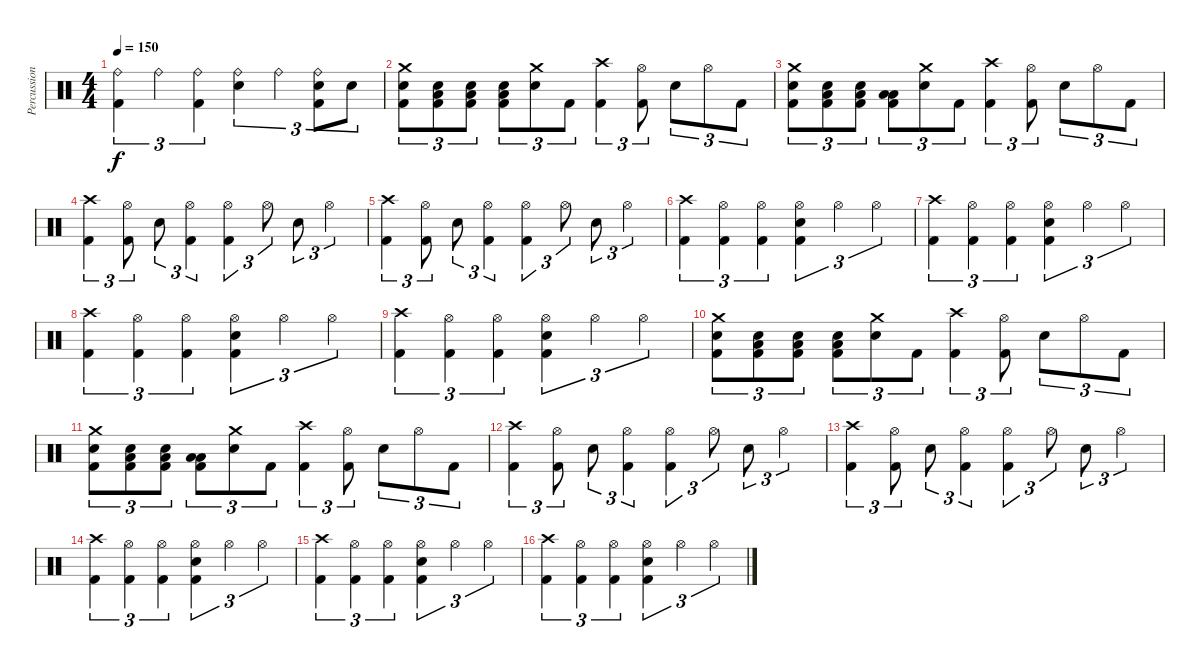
\track ("Percussion" "Percussion") {instrument percussion}
\staff {score}
\articulation defaults
\ts (4 4)
\tempo 150
\clef neutral
\ks c
("Ride (bell)" "Kick (hit) 2").4{tu (3 2) dy f} "Ride (bell)".4{tu (3 2)} ("Ride (bell)" "Kick (hit) 2").4{tu (3 2)} ("Ride (bell)" "Snare (hit) 2").4{tu (3 2)} "Ride (bell)".4{tu (3 2)} ("Ride (bell)" "Snare (hit) 2" "Kick (hit) 2").8{tu (3 2)} "Snare (hit) 2".8{tu (3 2)} |
("Crash medium (hit)" "Snare (hit) 2" "Kick (hit) 2").8{tu (3 2)} ("Snare (hit) 2" "Low Floor Tom (hit)" "Kick (hit) 2").8{tu (3 2)} ("Snare (hit) 2" "Low Floor Tom (hit)" "Kick (hit) 2").8{tu (3 2)} ("Snare (hit) 2" "Low Floor Tom (hit)" "Kick (hit) 2").8{tu (3 2)} ("Crash medium (hit)" "Snare (hit) 2").8{tu (3 2)} "Kick (hit) 2".8{tu (3 2)} ("Crash high (hit)" "Kick (hit) 2").4{tu (3 2)} ("Hi-Hat (open)" "Kick (hit) 2").8{tu (3 2)} "Snare (hit) 2".8{tu (3 2)} "Hi-Hat (open)".8{tu (3 2)} "Kick (hit) 2".8{tu (3 2)} |
("Crash medium (hit)" "Snare (hit) 2" "Kick (hit) 2").8{tu (3 2)} ("Snare (hit) 2" "Low Floor Tom (hit)" "Kick (hit) 2").8{tu (3 2)} ("Snare (hit) 2" "Low Floor Tom (hit)" "Kick (hit) 2").8{tu (3 2)} ("Low Floor Tom (hit)" "Low Floor Tom (hit)" "Kick (hit) 2").8{tu (3 2)} ("Crash medium (hit)" "Snare (hit) 2").8{tu (3 2)} "Kick (hit) 2".8{tu (3 2)} ("Crash high (hit)" "Kick (hit) 2").4{tu (3 2)} ("Hi-Hat (open)" "Kick (hit) 2").8{tu (3 2)} "Snare (hit) 2".8{tu (3 2)} "Hi-Hat (open)".8{tu (3 2)} "Kick (hit) 2".8{tu (3 2)} |
("Crash high (hit)" "Kick (hit) 2").4{tu (3 2)} ("Hi-Hat (open)" "Kick (hit) 2").8{tu (3 2)} "Snare (hit) 2".8{tu (3 2)} ("Hi-Hat (open)" "Kick (hit) 2").4{tu (3 2)} ("Hi-Hat (open)" "Kick (hit) 2").4{tu (3 2)} "Hi-Hat (open)".8{tu (3 2)} "Snare (hit) 2".8{tu (3 2)} "Hi-Hat (open)".4{tu (3 2)} |
("Crash high (hit)" "Kick (hit) 2").4{tu (3 2)} ("Hi-Hat (open)" "Kick (hit) 2").8{tu (3 2)} "Snare (hit) 2".8{tu (3 2)} ("Hi-Hat (open)" "Kick (hit) 2").4{tu (3 2)} ("Hi-Hat (open)" "Kick (hit) 2").4{tu (3 2)} "Hi-Hat (open)".8{tu (3 2)} "Snare (hit) 2".8{tu (3 2)} "Hi-Hat (open)".4{tu (3 2)} |
("Crash high (hit)" "Kick (hit) 2").4{tu (3 2)} ("Hi-Hat (open)" "Kick (hit) 2").4{tu (3 2)} ("Hi-Hat (open)" "Kick (hit) 2").4{tu (3 2)} ("Hi-Hat (open)" "Snare (hit) 2" "Kick (hit) 2").4{tu (3 2)} "Hi-Hat (open)".4{tu (3 2)} "Hi-Hat (open)".4{tu (3 2)} |
("Crash high (hit)" "Kick (hit) 2").4{tu (3 2)} ("Hi-Hat (open)" "Kick (hit) 2").4{tu (3 2)} ("Hi-Hat (open)" "Kick (hit) 2").4{tu (3 2)} ("Hi-Hat (open)" "Snare (hit) 2" "Kick (hit) 2").4{tu (3 2)} "Hi-Hat (open)".4{tu (3 2)} "Hi-Hat (open)".4{tu (3 2)} |
("Crash high (hit)" "Kick (hit) 2").4{tu (3 2)} ("Hi-Hat (open)" "Kick (hit) 2").4{tu (3 2)} ("Hi-Hat (open)" "Kick (hit) 2").4{tu (3 2)} ("Hi-Hat (open)" "Snare (hit) 2" "Kick (hit) 2").4{tu (3 2)} "Hi-Hat (open)".4{tu (3 2)} "Hi-Hat (open)".4{tu (3 2)} |
("Crash high (hit)" "Kick (hit) 2").4{tu (3 2)} ("Hi-Hat (open)" "Kick (hit) 2").4{tu (3 2)} ("Hi-Hat (open)" "Kick (hit) 2").4{tu (3 2)} ("Hi-Hat (open)" "Snare (hit) 2" "Kick (hit) 2").4{tu (3 2)} "Hi-Hat (open)".4{tu (3 2)} "Hi-Hat (open)".4{tu (3 2)} |
("Crash medium (hit)" "Snare (hit) 2" "Kick (hit) 2").8{tu (3 2)} ("Snare (hit) 2" "Low Floor Tom (hit)" "Kick (hit) 2").8{tu (3 2)} ("Snare (hit) 2" "Low Floor Tom (hit)" "Kick (hit) 2").8{tu (3 2)} ("Snare (hit) 2" "Low Floor Tom (hit)" "Kick (hit) 2").8{tu (3 2)} ("Crash medium (hit)" "Snare (hit) 2").8{tu (3 2)} "Kick (hit) 2".8{tu (3 2)} ("Crash high (hit)" "Kick (hit) 2").4{tu (3 2)} ("Hi-Hat (open)" "Kick (hit) 2").8{tu (3 2)} "Snare (hit) 2".8{tu (3 2)} "Hi-Hat (open)".8{tu (3 2)} "Kick (hit) 2".8{tu (3 2)} |
("Crash medium (hit)" "Snare (hit) 2" "Kick (hit) 2").8{tu (3 2)} ("Snare (hit) 2" "Low Floor Tom (hit)" "Kick (hit) 2").8{tu (3 2)} ("Snare (hit) 2" "Low Floor Tom (hit)" "Kick (hit) 2").8{tu (3 2)} ("Low Floor Tom (hit)" "Low Floor Tom (hit)" "Kick (hit) 2").8{tu (3 2)} ("Crash medium (hit)" "Snare (hit) 2").8{tu (3 2)} "Kick (hit) 2".8{tu (3 2)} ("Crash high (hit)" "Kick (hit) 2").4{tu (3 2)} ("Hi-Hat (open)" "Kick (hit) 2").8{tu (3 2)} "Snare (hit) 2".8{tu (3 2)} "Hi-Hat (open)".8{tu (3 2)} "Kick (hit) 2".8{tu (3 2)} |
("Crash high (hit)" "Kick (hit) 2").4{tu (3 2)} ("Hi-Hat (open)" "Kick (hit) 2").8{tu (3 2)} "Snare (hit) 2".8{tu (3 2)} ("Hi-Hat (open)" "Kick (hit) 2").4{tu (3 2)} ("Hi-Hat (open)" "Kick (hit) 2").4{tu (3 2)} "Hi-Hat (open)".8{tu (3 2)} "Snare (hit) 2".8{tu (3 2)} "Hi-Hat (open)".4{tu (3 2)} |
("Crash high (hit)" "Kick (hit) 2").4{tu (3 2)} ("Hi-Hat (open)" "Kick (hit) 2").8{tu (3 2)} "Snare (hit) 2".8{tu (3 2)} ("Hi-Hat (open)" "Kick (hit) 2").4{tu (3 2)} ("Hi-Hat (open)" "Kick (hit) 2").4{tu (3 2)} "Hi-Hat (open)".8{tu (3 2)} "Snare (hit) 2".8{tu (3 2)} "Hi-Hat (open)".4{tu (3 2)} |
("Crash high (hit)" "Kick (hit) 2").4{tu (3 2)} ("Hi-Hat (open)" "Kick (hit) 2").4{tu (3 2)} ("Hi-Hat (open)" "Kick (hit) 2").4{tu (3 2)} ("Hi-Hat (open)" "Snare (hit) 2" "Kick (hit) 2").4{tu (3 2)} "Hi-Hat (open)".4{tu (3 2)} "Hi-Hat (open)".4{tu (3 2)} |
("Crash high (hit)" "Kick (hit) 2").4{tu (3 2)} ("Hi-Hat (open)" "Kick (hit) 2").4{tu (3 2)} ("Hi-Hat (open)" "Kick (hit) 2").4{tu (3 2)} ("Hi-Hat (open)" "Snare (hit) 2" "Kick (hit) 2").4{tu (3 2)} "Hi-Hat (open)".4{tu (3 2)} "Hi-Hat (open)".4{tu (3 2)} |
("Crash high (hit)" "Kick (hit) 2").4{tu (3 2)} ("Hi-Hat (open)" "Kick (hit) 2").4{tu (3 2)} ("Hi-Hat (open)" "Kick (hit) 2").4{tu (3 2)} ("Hi-Hat (open)" "Snare (hit) 2" "Kick (hit) 2").4{tu (3 2)} "Hi-Hat (open)".4{tu (3 2)} "Hi-Hat (open)".4{tu (3 2)}
